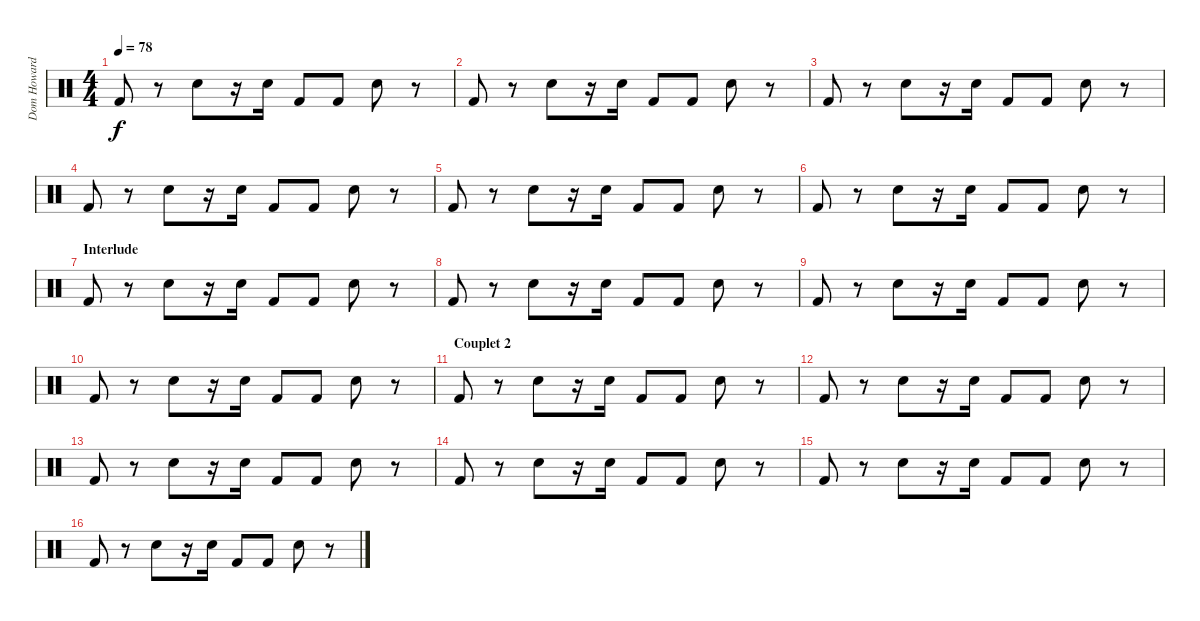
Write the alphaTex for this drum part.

\track ("Dom Howard" "Dom Howard") {instrument percussion}
\staff {score}
\articulation defaults
\ts (4 4)
\tempo 78
\clef neutral
\ks c "Kick (hit) 2".8{dy f}
r.8 "Electric Snare (hit)".8 r.16 "Electric Snare (hit)".16 "Kick (hit) 2".8 "Kick (hit) 2".8 "Electric Snare (hit)".8 r.8 |
"Kick (hit) 2".8 r.8 "Electric Snare (hit)".8 r.16 "Electric Snare (hit)".16 "Kick (hit) 2".8 "Kick (hit) 2".8 "Electric Snare (hit)".8 r.8 |
"Kick (hit) 2".8 r.8 "Electric Snare (hit)".8 r.16 "Electric Snare (hit)".16 "Kick (hit) 2".8 "Kick (hit) 2".8 "Electric Snare (hit)".8 r.8 |
"Kick (hit) 2".8 r.8 "Electric Snare (hit)".8 r.16 "Electric Snare (hit)".16 "Kick (hit) 2".8 "Kick (hit) 2".8 "Electric Snare (hit)".8 r.8 |
"Kick (hit) 2".8 r.8 "Electric Snare (hit)".8 r.16 "Electric Snare (hit)".16 "Kick (hit) 2".8 "Kick (hit) 2".8 "Electric Snare (hit)".8 r.8 |
"Kick (hit) 2".8 r.8 "Electric Snare (hit)".8 r.16 "Electric Snare (hit)".16 "Kick (hit) 2".8 "Kick (hit) 2".8 "Electric Snare (hit)".8 r.8 |
\section ("" "Interlude")
"Kick (hit) 2".8 r.8 "Electric Snare (hit)".8 r.16 "Electric Snare (hit)".16 "Kick (hit) 2".8 "Kick (hit) 2".8 "Electric Snare (hit)".8 r.8 |
"Kick (hit) 2".8 r.8 "Electric Snare (hit)".8 r.16 "Electric Snare (hit)".16 "Kick (hit) 2".8 "Kick (hit) 2".8 "Electric Snare (hit)".8 r.8 |
"Kick (hit) 2".8 r.8 "Electric Snare (hit)".8 r.16 "Electric Snare (hit)".16 "Kick (hit) 2".8 "Kick (hit) 2".8 "Electric Snare (hit)".8 r.8 |
"Kick (hit) 2".8 r.8 "Electric Snare (hit)".8 r.16 "Electric Snare (hit)".16 "Kick (hit) 2".8 "Kick (hit) 2".8 "Electric Snare (hit)".8 r.8 |
\section ("" "Couplet 2")
"Kick (hit) 2".8 r.8 "Electric Snare (hit)".8 r.16 "Electric Snare (hit)".16 "Kick (hit) 2".8 "Kick (hit) 2".8 "Electric Snare (hit)".8 r.8 |
"Kick (hit) 2".8 r.8 "Electric Snare (hit)".8 r.16 "Electric Snare (hit)".16 "Kick (hit) 2".8 "Kick (hit) 2".8 "Electric Snare (hit)".8 r.8 |
"Kick (hit) 2".8 r.8 "Electric Snare (hit)".8 r.16 "Electric Snare (hit)".16 "Kick (hit) 2".8 "Kick (hit) 2".8 "Electric Snare (hit)".8 r.8 |
"Kick (hit) 2".8 r.8 "Electric Snare (hit)".8 r.16 "Electric Snare (hit)".16 "Kick (hit) 2".8 "Kick (hit) 2".8 "Electric Snare (hit)".8 r.8 |
"Kick (hit) 2".8 r.8 "Electric Snare (hit)".8 r.16 "Electric Snare (hit)".16 "Kick (hit) 2".8 "Kick (hit) 2".8 "Electric Snare (hit)".8 r.8 |
"Kick (hit) 2".8 r.8 "Electric Snare (hit)".8 r.16 "Electric Snare (hit)".16 "Kick (hit) 2".8 "Kick (hit) 2".8 "Electric Snare (hit)".8 r.8
